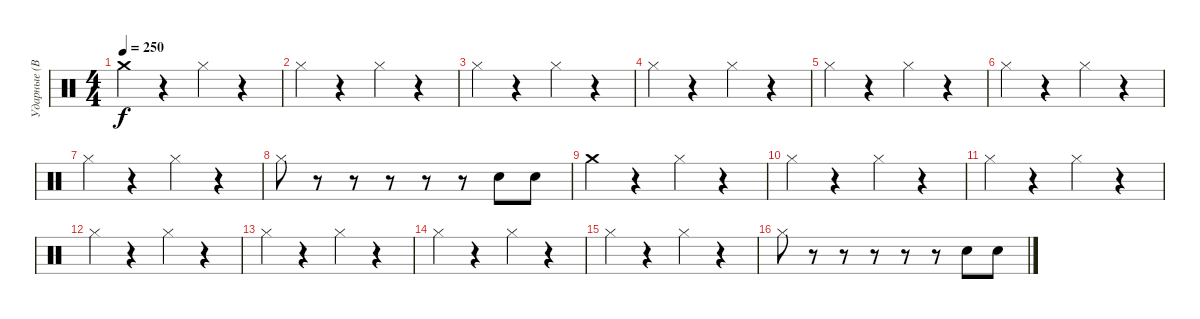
\track ("Ударные (Вася)" "Ударные (В") {instrument percussion}
\staff {score}
\articulation defaults
\ts (4 4)
\tempo 250
\clef neutral
\ks c "Crash medium (hit)".4{dy f}
r.4 "Hi-Hat (closed)".4 r.4 |
"Hi-Hat (closed)".4 r.4 "Hi-Hat (closed)".4 r.4 |
"Hi-Hat (closed)".4 r.4 "Hi-Hat (closed)".4 r.4 |
"Hi-Hat (closed)".4 r.4 "Hi-Hat (closed)".4 r.4 |
"Hi-Hat (closed)".4 r.4 "Hi-Hat (closed)".4 r.4 |
"Hi-Hat (closed)".4 r.4 "Hi-Hat (closed)".4 r.4 |
"Hi-Hat (closed)".4 r.4 "Hi-Hat (closed)".4 r.4 |
"Hi-Hat (closed)".8 r.8 r.8 r.8 r.8 r.8 "Electric Snare (hit)".8 "Snare (hit) 2".8 |
"Crash medium (hit)".4 r.4 "Hi-Hat (closed)".4 r.4 |
"Hi-Hat (closed)".4 r.4 "Hi-Hat (closed)".4 r.4 |
"Hi-Hat (closed)".4 r.4 "Hi-Hat (closed)".4 r.4 |
"Hi-Hat (closed)".4 r.4 "Hi-Hat (closed)".4 r.4 |
"Hi-Hat (closed)".4 r.4 "Hi-Hat (closed)".4 r.4 |
"Hi-Hat (closed)".4 r.4 "Hi-Hat (closed)".4 r.4 |
"Hi-Hat (closed)".4 r.4 "Hi-Hat (closed)".4 r.4 |
"Hi-Hat (closed)".8 r.8 r.8 r.8 r.8 r.8 "Electric Snare (hit)".8 "Snare (hit) 2".8
